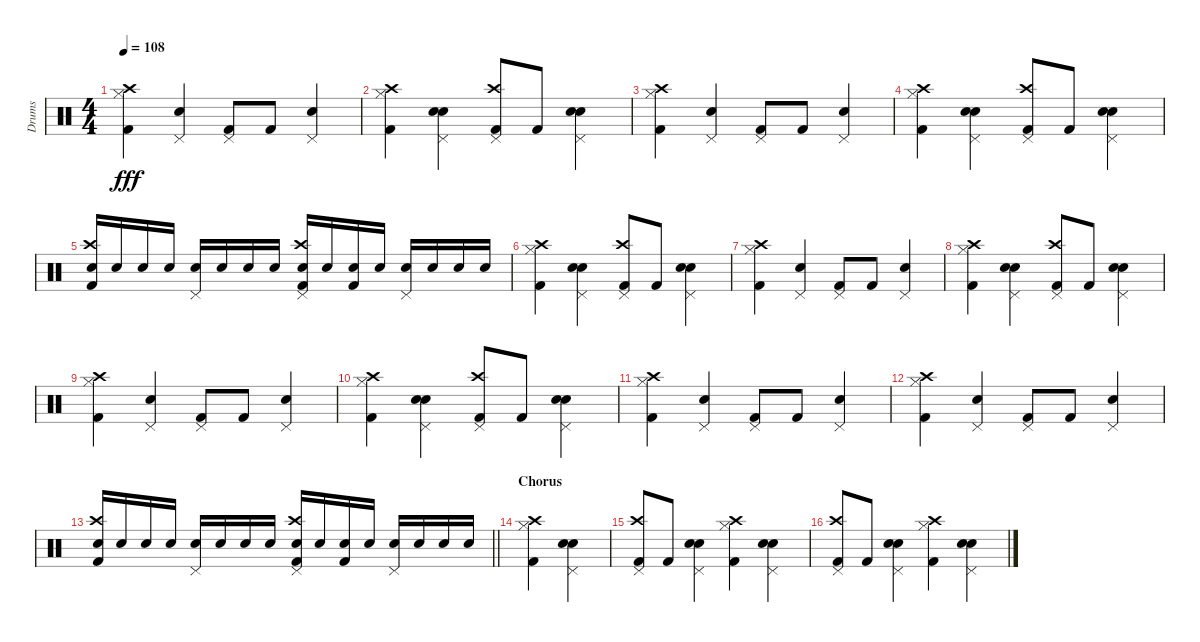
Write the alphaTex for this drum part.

\track ("Drums" "Drums") {instrument percussion}
\staff {score}
\articulation defaults
\ts (4 4)
\tempo 108
\clef neutral
\ks c
("Hi-Hat (closed)" "Kick (hit) 2" "Crash high (hit)").4{dy fff} ("Electric Snare (hit)" "Pedal Hi-Hat (hit)").4 ("Pedal Hi-Hat (hit)" "Kick (hit) 2").8 "Kick (hit) 2".8 ("Electric Snare (hit)" "Pedal Hi-Hat (hit)").4 |
("Hi-Hat (closed)" "Kick (hit) 2" "Crash high (hit)").4 ("Electric Snare (hit)" "Pedal Hi-Hat (hit)" "Snare (hit) 2").4 ("Pedal Hi-Hat (hit)" "Kick (hit) 2" "Crash high (hit)").8 "Kick (hit) 2".8 ("Electric Snare (hit)" "Pedal Hi-Hat (hit)" "Snare (hit) 2").4 |
("Hi-Hat (closed)" "Kick (hit) 2" "Crash high (hit)").4 ("Electric Snare (hit)" "Pedal Hi-Hat (hit)").4 ("Pedal Hi-Hat (hit)" "Kick (hit) 2").8 "Kick (hit) 2".8 ("Electric Snare (hit)" "Pedal Hi-Hat (hit)").4 |
("Hi-Hat (closed)" "Kick (hit) 2" "Crash high (hit)").4 ("Electric Snare (hit)" "Pedal Hi-Hat (hit)" "Snare (hit) 2").4 ("Pedal Hi-Hat (hit)" "Kick (hit) 2" "Crash high (hit)").8 "Kick (hit) 2".8 ("Electric Snare (hit)" "Pedal Hi-Hat (hit)" "Snare (hit) 2").4 |
("Kick (hit) 2" "Crash high (hit)" "Snare (hit) 2").16 "Snare (hit) 2".16 "Snare (hit) 2".16 "Snare (hit) 2".16 ("Pedal Hi-Hat (hit)" "Electric Snare (hit)").16 "Electric Snare (hit)".16 "Electric Snare (hit)".16 "Electric Snare (hit)".16 ("Pedal Hi-Hat (hit)" "Kick (hit) 2" "Crash high (hit)" "Electric Snare (hit)").16 "Electric Snare (hit)".16 ("Kick (hit) 2" "Electric Snare (hit)").16 "Electric Snare (hit)".16 ("Pedal Hi-Hat (hit)" "Snare (hit) 2").16 "Snare (hit) 2".16 "Snare (hit) 2".16 "Snare (hit) 2".16 |
("Hi-Hat (closed)" "Kick (hit) 2" "Crash high (hit)").4 ("Electric Snare (hit)" "Pedal Hi-Hat (hit)" "Snare (hit) 2").4 ("Pedal Hi-Hat (hit)" "Kick (hit) 2" "Crash high (hit)").8 "Kick (hit) 2".8 ("Electric Snare (hit)" "Pedal Hi-Hat (hit)" "Snare (hit) 2").4 |
("Hi-Hat (closed)" "Kick (hit) 2" "Crash high (hit)").4 ("Electric Snare (hit)" "Pedal Hi-Hat (hit)").4 ("Pedal Hi-Hat (hit)" "Kick (hit) 2").8 "Kick (hit) 2".8 ("Electric Snare (hit)" "Pedal Hi-Hat (hit)").4 |
("Hi-Hat (closed)" "Kick (hit) 2" "Crash high (hit)").4 ("Electric Snare (hit)" "Pedal Hi-Hat (hit)" "Snare (hit) 2").4 ("Pedal Hi-Hat (hit)" "Kick (hit) 2" "Crash high (hit)").8 "Kick (hit) 2".8 ("Electric Snare (hit)" "Pedal Hi-Hat (hit)" "Snare (hit) 2").4 |
("Hi-Hat (closed)" "Kick (hit) 2" "Crash high (hit)").4 ("Electric Snare (hit)" "Pedal Hi-Hat (hit)").4 ("Pedal Hi-Hat (hit)" "Kick (hit) 2").8 "Kick (hit) 2".8 ("Electric Snare (hit)" "Pedal Hi-Hat (hit)").4 |
("Hi-Hat (closed)" "Kick (hit) 2" "Crash high (hit)").4 ("Electric Snare (hit)" "Pedal Hi-Hat (hit)" "Snare (hit) 2").4 ("Pedal Hi-Hat (hit)" "Kick (hit) 2" "Crash high (hit)").8 "Kick (hit) 2".8 ("Electric Snare (hit)" "Pedal Hi-Hat (hit)" "Snare (hit) 2").4 |
("Hi-Hat (closed)" "Kick (hit) 2" "Crash high (hit)").4 ("Electric Snare (hit)" "Pedal Hi-Hat (hit)").4 ("Pedal Hi-Hat (hit)" "Kick (hit) 2").8 "Kick (hit) 2".8 ("Electric Snare (hit)" "Pedal Hi-Hat (hit)").4 |
("Hi-Hat (closed)" "Kick (hit) 2" "Crash high (hit)").4 ("Electric Snare (hit)" "Pedal Hi-Hat (hit)").4 ("Pedal Hi-Hat (hit)" "Kick (hit) 2").8 "Kick (hit) 2".8 ("Electric Snare (hit)" "Pedal Hi-Hat (hit)").4 |
\barLineRight lightlight
("Kick (hit) 2" "Crash high (hit)" "Snare (hit) 2").16 "Snare (hit) 2".16 "Snare (hit) 2".16 "Snare (hit) 2".16 ("Pedal Hi-Hat (hit)" "Electric Snare (hit)").16 "Electric Snare (hit)".16 "Electric Snare (hit)".16 "Electric Snare (hit)".16 ("Pedal Hi-Hat (hit)" "Kick (hit) 2" "Crash high (hit)" "Electric Snare (hit)").16 "Electric Snare (hit)".16 ("Kick (hit) 2" "Electric Snare (hit)").16 "Electric Snare (hit)".16 ("Pedal Hi-Hat (hit)" "Snare (hit) 2").16 "Snare (hit) 2".16 "Snare (hit) 2".16 "Snare (hit) 2".16 |
\section ("" "Chorus")
("Hi-Hat (closed)" "Kick (hit) 2" "Crash high (hit)").4 ("Electric Snare (hit)" "Pedal Hi-Hat (hit)" "Snare (hit) 2").4 |
("Pedal Hi-Hat (hit)" "Kick (hit) 2" "Crash high (hit)").8 "Kick (hit) 2".8 ("Electric Snare (hit)" "Pedal Hi-Hat (hit)" "Snare (hit) 2").4 ("Hi-Hat (closed)" "Kick (hit) 2" "Crash high (hit)").4 ("Electric Snare (hit)" "Pedal Hi-Hat (hit)" "Snare (hit) 2").4 |
("Pedal Hi-Hat (hit)" "Kick (hit) 2" "Crash high (hit)").8 "Kick (hit) 2".8 ("Electric Snare (hit)" "Pedal Hi-Hat (hit)" "Snare (hit) 2").4 ("Hi-Hat (closed)" "Kick (hit) 2" "Crash high (hit)").4 ("Electric Snare (hit)" "Pedal Hi-Hat (hit)" "Snare (hit) 2").4
